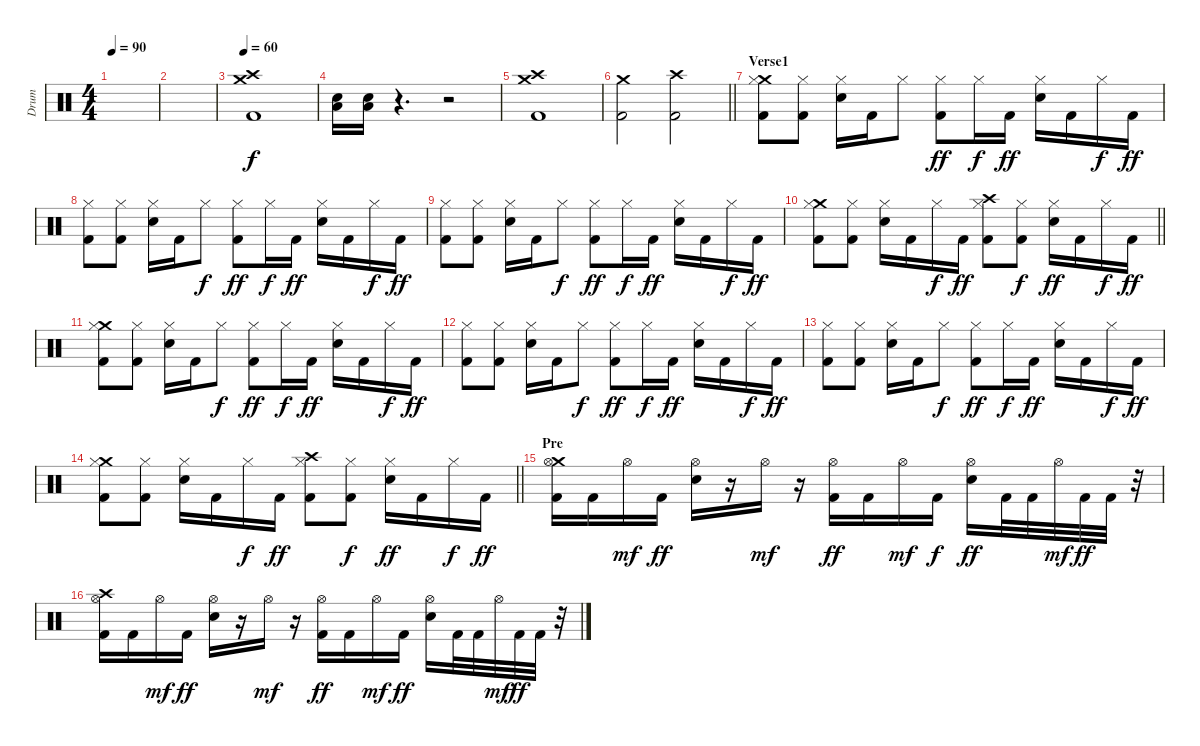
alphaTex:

\track ("Drum" "Drum") {instrument percussion}
\staff {score}
\articulation defaults
\ts (4 4)
\tempo 90
\clef neutral
\ks c
|
|
\tempo 60
("Crash medium (hit)" "Crash high (hit)" "Kick (hit) 2").1 |
("Low Floor Tom (hit)" "Electric Snare (hit)").16 ("Low Floor Tom (hit)" "Electric Snare (hit)").16 r.4{d} r.2 |
("Crash medium (hit)" "Crash high (hit)" "Kick (hit) 2").1 |
\barLineRight lightlight
("Crash medium (hit)" "Kick (hit) 2").2 ("Crash high (hit)" "Kick (hit) 2").2 |
\section ("" "Verse1")
("Crash medium (hit)" "Hi-Hat (closed)" "Kick (hit) 2").8 ("Hi-Hat (closed)" "Kick (hit) 2").8 ("Hi-Hat (closed)" "Electric Snare (hit)").16 "Kick (hit) 2".16 "Hi-Hat (closed)".8{dy f} ("Hi-Hat (closed)" "Kick (hit) 2").8{dy ff} "Hi-Hat (closed)".16{dy f} "Kick (hit) 2".16{dy ff} ("Hi-Hat (closed)" "Electric Snare (hit)").16 "Kick (hit) 2".16 "Hi-Hat (closed)".16{dy f} "Kick (hit) 2".16{dy ff} |
("Hi-Hat (closed)" "Kick (hit) 2").8 ("Hi-Hat (closed)" "Kick (hit) 2").8 ("Hi-Hat (closed)" "Electric Snare (hit)").16 "Kick (hit) 2".16 "Hi-Hat (closed)".8{dy f} ("Hi-Hat (closed)" "Kick (hit) 2").8{dy ff} "Hi-Hat (closed)".16{dy f} "Kick (hit) 2".16{dy ff} ("Hi-Hat (closed)" "Electric Snare (hit)").16 "Kick (hit) 2".16 "Hi-Hat (closed)".16{dy f} "Kick (hit) 2".16{dy ff} |
("Hi-Hat (closed)" "Kick (hit) 2").8 ("Hi-Hat (closed)" "Kick (hit) 2").8 ("Hi-Hat (closed)" "Electric Snare (hit)").16 "Kick (hit) 2".16 "Hi-Hat (closed)".8{dy f} ("Hi-Hat (closed)" "Kick (hit) 2").8{dy ff} "Hi-Hat (closed)".16{dy f} "Kick (hit) 2".16{dy ff} ("Hi-Hat (closed)" "Electric Snare (hit)").16 "Kick (hit) 2".16 "Hi-Hat (closed)".16{dy f} "Kick (hit) 2".16{dy ff} |
\barLineRight lightlight
("Crash medium (hit)" "Hi-Hat (closed)" "Kick (hit) 2").8 ("Hi-Hat (closed)" "Kick (hit) 2").8 ("Hi-Hat (closed)" "Electric Snare (hit)").16 "Kick (hit) 2".16 "Hi-Hat (closed)".16{dy f} "Kick (hit) 2".16{dy ff} ("Crash high (hit)" "Hi-Hat (closed)" "Kick (hit) 2").8 ("Hi-Hat (closed)" "Kick (hit) 2").8{dy f} ("Hi-Hat (closed)" "Electric Snare (hit)").16{dy ff} "Kick (hit) 2".16 "Hi-Hat (closed)".16{dy f} "Kick (hit) 2".16{dy ff} |
("Crash medium (hit)" "Hi-Hat (closed)" "Kick (hit) 2").8 ("Hi-Hat (closed)" "Kick (hit) 2").8 ("Hi-Hat (closed)" "Electric Snare (hit)").16 "Kick (hit) 2".16 "Hi-Hat (closed)".8{dy f} ("Hi-Hat (closed)" "Kick (hit) 2").8{dy ff} "Hi-Hat (closed)".16{dy f} "Kick (hit) 2".16{dy ff} ("Hi-Hat (closed)" "Electric Snare (hit)").16 "Kick (hit) 2".16 "Hi-Hat (closed)".16{dy f} "Kick (hit) 2".16{dy ff} |
("Hi-Hat (closed)" "Kick (hit) 2").8 ("Hi-Hat (closed)" "Kick (hit) 2").8 ("Hi-Hat (closed)" "Electric Snare (hit)").16 "Kick (hit) 2".16 "Hi-Hat (closed)".8{dy f} ("Hi-Hat (closed)" "Kick (hit) 2").8{dy ff} "Hi-Hat (closed)".16{dy f} "Kick (hit) 2".16{dy ff} ("Hi-Hat (closed)" "Electric Snare (hit)").16 "Kick (hit) 2".16 "Hi-Hat (closed)".16{dy f} "Kick (hit) 2".16{dy ff} |
("Hi-Hat (closed)" "Kick (hit) 2").8 ("Hi-Hat (closed)" "Kick (hit) 2").8 ("Hi-Hat (closed)" "Electric Snare (hit)").16 "Kick (hit) 2".16 "Hi-Hat (closed)".8{dy f} ("Hi-Hat (closed)" "Kick (hit) 2").8{dy ff} "Hi-Hat (closed)".16{dy f} "Kick (hit) 2".16{dy ff} ("Hi-Hat (closed)" "Electric Snare (hit)").16 "Kick (hit) 2".16 "Hi-Hat (closed)".16{dy f} "Kick (hit) 2".16{dy ff} |
\barLineRight lightlight
("Crash medium (hit)" "Hi-Hat (closed)" "Kick (hit) 2").8 ("Hi-Hat (closed)" "Kick (hit) 2").8 ("Hi-Hat (closed)" "Electric Snare (hit)").16 "Kick (hit) 2".16 "Hi-Hat (closed)".16{dy f} "Kick (hit) 2".16{dy ff} ("Crash high (hit)" "Hi-Hat (closed)" "Kick (hit) 2").8 ("Hi-Hat (closed)" "Kick (hit) 2").8{dy f} ("Hi-Hat (closed)" "Electric Snare (hit)").16{dy ff} "Kick (hit) 2".16 "Hi-Hat (closed)".16{dy f} "Kick (hit) 2".16{dy ff} |
\section ("" "Pre")
("Crash medium (hit)" "Hi-Hat (open)" "Kick (hit) 2").16 "Kick (hit) 2".16 "Hi-Hat (open)".16{dy mf} "Kick (hit) 2".16{dy ff} ("Hi-Hat (open)" "Electric Snare (hit)").16 r.16 "Hi-Hat (open)".16{dy mf} r.16 ("Hi-Hat (open)" "Kick (hit) 2").16{dy ff} "Kick (hit) 2".16 "Hi-Hat (open)".16{dy mf} "Kick (hit) 2".16{dy f} ("Hi-Hat (open)" "Electric Snare (hit)").16{dy ff} "Kick (hit) 2".32 "Kick (hit) 2".32 "Hi-Hat (open)".32{dy mf} "Kick (hit) 2".32{dy ff} "Kick (hit) 2".32 r.32 |
("Crash high (hit)" "Hi-Hat (open)" "Kick (hit) 2").16 "Kick (hit) 2".16 "Hi-Hat (open)".16{dy mf} "Kick (hit) 2".16{dy ff} ("Hi-Hat (open)" "Electric Snare (hit)").16 r.16 "Hi-Hat (open)".16{dy mf} r.16 ("Hi-Hat (open)" "Kick (hit) 2").16{dy ff} "Kick (hit) 2".16 "Hi-Hat (open)".16{dy mf} "Kick (hit) 2".16{dy ff} ("Hi-Hat (open)" "Electric Snare (hit)").16 "Kick (hit) 2".32 "Kick (hit) 2".32 "Hi-Hat (open)".32{dy mf} "Kick (hit) 2".32{dy ff} "Kick (hit) 2".32 r.32
